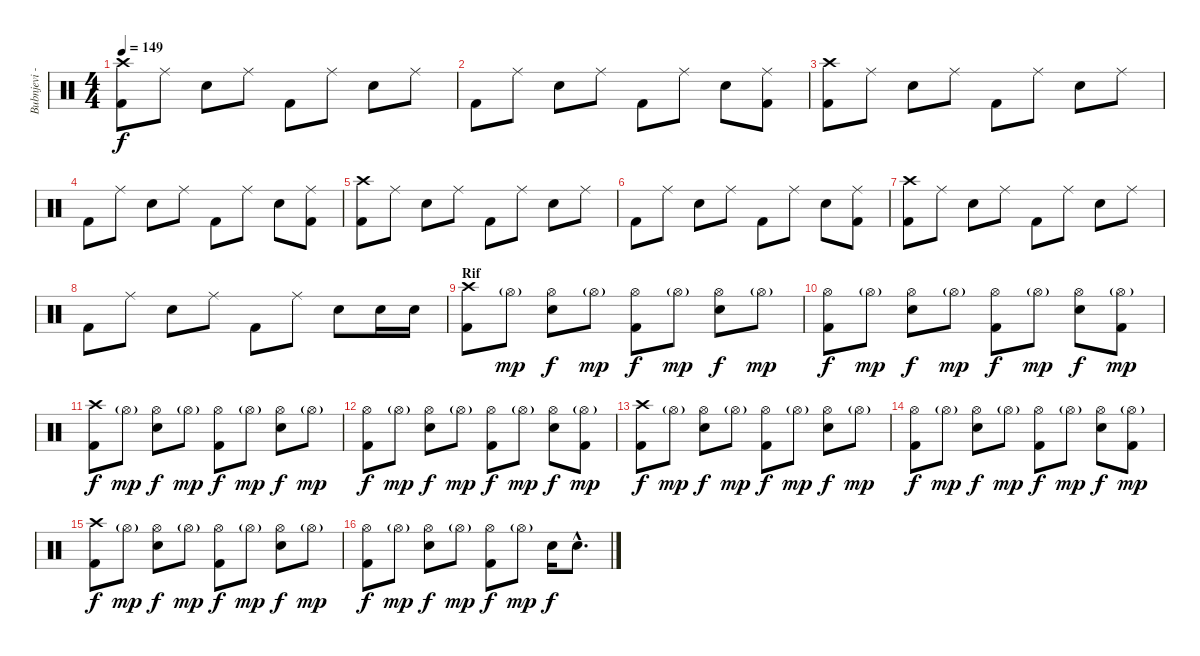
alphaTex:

\track ("Bubnjevi - Vladan Cvetkovic" "Bubnjevi -") {instrument percussion}
\staff {score}
\articulation defaults
\ts (4 4)
\tempo 149
\clef neutral
\ks c
("Crash high (hit)" "Kick (hit) 2").8{dy f} "Ride (middle)".8 "Electric Snare (hit)".8 "Ride (middle)".8 "Kick (hit) 2".8 "Ride (middle)".8 "Electric Snare (hit)".8 "Ride (middle)".8 |
"Kick (hit) 2".8 "Ride (middle)".8 "Electric Snare (hit)".8 "Ride (middle)".8 "Kick (hit) 2".8 "Ride (middle)".8 "Electric Snare (hit)".8 ("Ride (middle)" "Kick (hit) 2").8 |
("Crash high (hit)" "Kick (hit) 2").8 "Ride (middle)".8 "Electric Snare (hit)".8 "Ride (middle)".8 "Kick (hit) 2".8 "Ride (middle)".8 "Electric Snare (hit)".8 "Ride (middle)".8 |
"Kick (hit) 2".8 "Ride (middle)".8 "Electric Snare (hit)".8 "Ride (middle)".8 "Kick (hit) 2".8 "Ride (middle)".8 "Electric Snare (hit)".8 ("Ride (middle)" "Kick (hit) 2").8 |
("Crash high (hit)" "Kick (hit) 2").8 "Ride (middle)".8 "Electric Snare (hit)".8 "Ride (middle)".8 "Kick (hit) 2".8 "Ride (middle)".8 "Electric Snare (hit)".8 "Ride (middle)".8 |
"Kick (hit) 2".8 "Ride (middle)".8 "Electric Snare (hit)".8 "Ride (middle)".8 "Kick (hit) 2".8 "Ride (middle)".8 "Electric Snare (hit)".8 ("Ride (middle)" "Kick (hit) 2").8 |
("Crash high (hit)" "Kick (hit) 2").8 "Ride (middle)".8 "Electric Snare (hit)".8 "Ride (middle)".8 "Kick (hit) 2".8 "Ride (middle)".8 "Electric Snare (hit)".8 "Ride (middle)".8 |
"Kick (hit) 2".8 "Ride (middle)".8 "Electric Snare (hit)".8 "Ride (middle)".8 "Kick (hit) 2".8 "Ride (middle)".8 "Electric Snare (hit)".8 "Electric Snare (hit)".16 "Electric Snare (hit)".16 |
\section ("" "Rif")
("Crash high (hit)" "Kick (hit) 2").8 "Hi-Hat (open)"{g}.8{dy mp} ("Hi-Hat (open)" "Electric Snare (hit)").8{dy f} "Hi-Hat (open)"{g}.8{dy mp} ("Hi-Hat (open)" "Kick (hit) 2").8{dy f} "Hi-Hat (open)"{g}.8{dy mp} ("Hi-Hat (open)" "Electric Snare (hit)").8{dy f} "Hi-Hat (open)"{g}.8{dy mp} |
("Hi-Hat (open)" "Kick (hit) 2").8{dy f} "Hi-Hat (open)"{g}.8{dy mp} ("Hi-Hat (open)" "Electric Snare (hit)").8{dy f} "Hi-Hat (open)"{g}.8{dy mp} ("Hi-Hat (open)" "Kick (hit) 2").8{dy f} "Hi-Hat (open)"{g}.8{dy mp} ("Hi-Hat (open)" "Electric Snare (hit)").8{dy f} ("Hi-Hat (open)"{g} "Kick (hit) 2").8{dy mp} |
("Crash high (hit)" "Kick (hit) 2").8{dy f} "Hi-Hat (open)"{g}.8{dy mp} ("Hi-Hat (open)" "Electric Snare (hit)").8{dy f} "Hi-Hat (open)"{g}.8{dy mp} ("Hi-Hat (open)" "Kick (hit) 2").8{dy f} "Hi-Hat (open)"{g}.8{dy mp} ("Hi-Hat (open)" "Electric Snare (hit)").8{dy f} "Hi-Hat (open)"{g}.8{dy mp} |
("Hi-Hat (open)" "Kick (hit) 2").8{dy f} "Hi-Hat (open)"{g}.8{dy mp} ("Hi-Hat (open)" "Electric Snare (hit)").8{dy f} "Hi-Hat (open)"{g}.8{dy mp} ("Hi-Hat (open)" "Kick (hit) 2").8{dy f} "Hi-Hat (open)"{g}.8{dy mp} ("Hi-Hat (open)" "Electric Snare (hit)").8{dy f} ("Hi-Hat (open)"{g} "Kick (hit) 2").8{dy mp} |
("Crash high (hit)" "Kick (hit) 2").8{dy f} "Hi-Hat (open)"{g}.8{dy mp} ("Hi-Hat (open)" "Electric Snare (hit)").8{dy f} "Hi-Hat (open)"{g}.8{dy mp} ("Hi-Hat (open)" "Kick (hit) 2").8{dy f} "Hi-Hat (open)"{g}.8{dy mp} ("Hi-Hat (open)" "Electric Snare (hit)").8{dy f} "Hi-Hat (open)"{g}.8{dy mp} |
("Hi-Hat (open)" "Kick (hit) 2").8{dy f} "Hi-Hat (open)"{g}.8{dy mp} ("Hi-Hat (open)" "Electric Snare (hit)").8{dy f} "Hi-Hat (open)"{g}.8{dy mp} ("Hi-Hat (open)" "Kick (hit) 2").8{dy f} "Hi-Hat (open)"{g}.8{dy mp} ("Hi-Hat (open)" "Electric Snare (hit)").8{dy f} ("Hi-Hat (open)"{g} "Kick (hit) 2").8{dy mp} |
("Crash high (hit)" "Kick (hit) 2").8{dy f} "Hi-Hat (open)"{g}.8{dy mp} ("Hi-Hat (open)" "Electric Snare (hit)").8{dy f} "Hi-Hat (open)"{g}.8{dy mp} ("Hi-Hat (open)" "Kick (hit) 2").8{dy f} "Hi-Hat (open)"{g}.8{dy mp} ("Hi-Hat (open)" "Electric Snare (hit)").8{dy f} "Hi-Hat (open)"{g}.8{dy mp} |
("Hi-Hat (open)" "Kick (hit) 2").8{dy f} "Hi-Hat (open)"{g}.8{dy mp} ("Hi-Hat (open)" "Electric Snare (hit)").8{dy f} "Hi-Hat (open)"{g}.8{dy mp} ("Hi-Hat (open)" "Kick (hit) 2").8{dy f} "Hi-Hat (open)"{g}.8{dy mp} "Electric Snare (hit)".16{dy f} "Electric Snare (hit)"{hac}.8{d}
